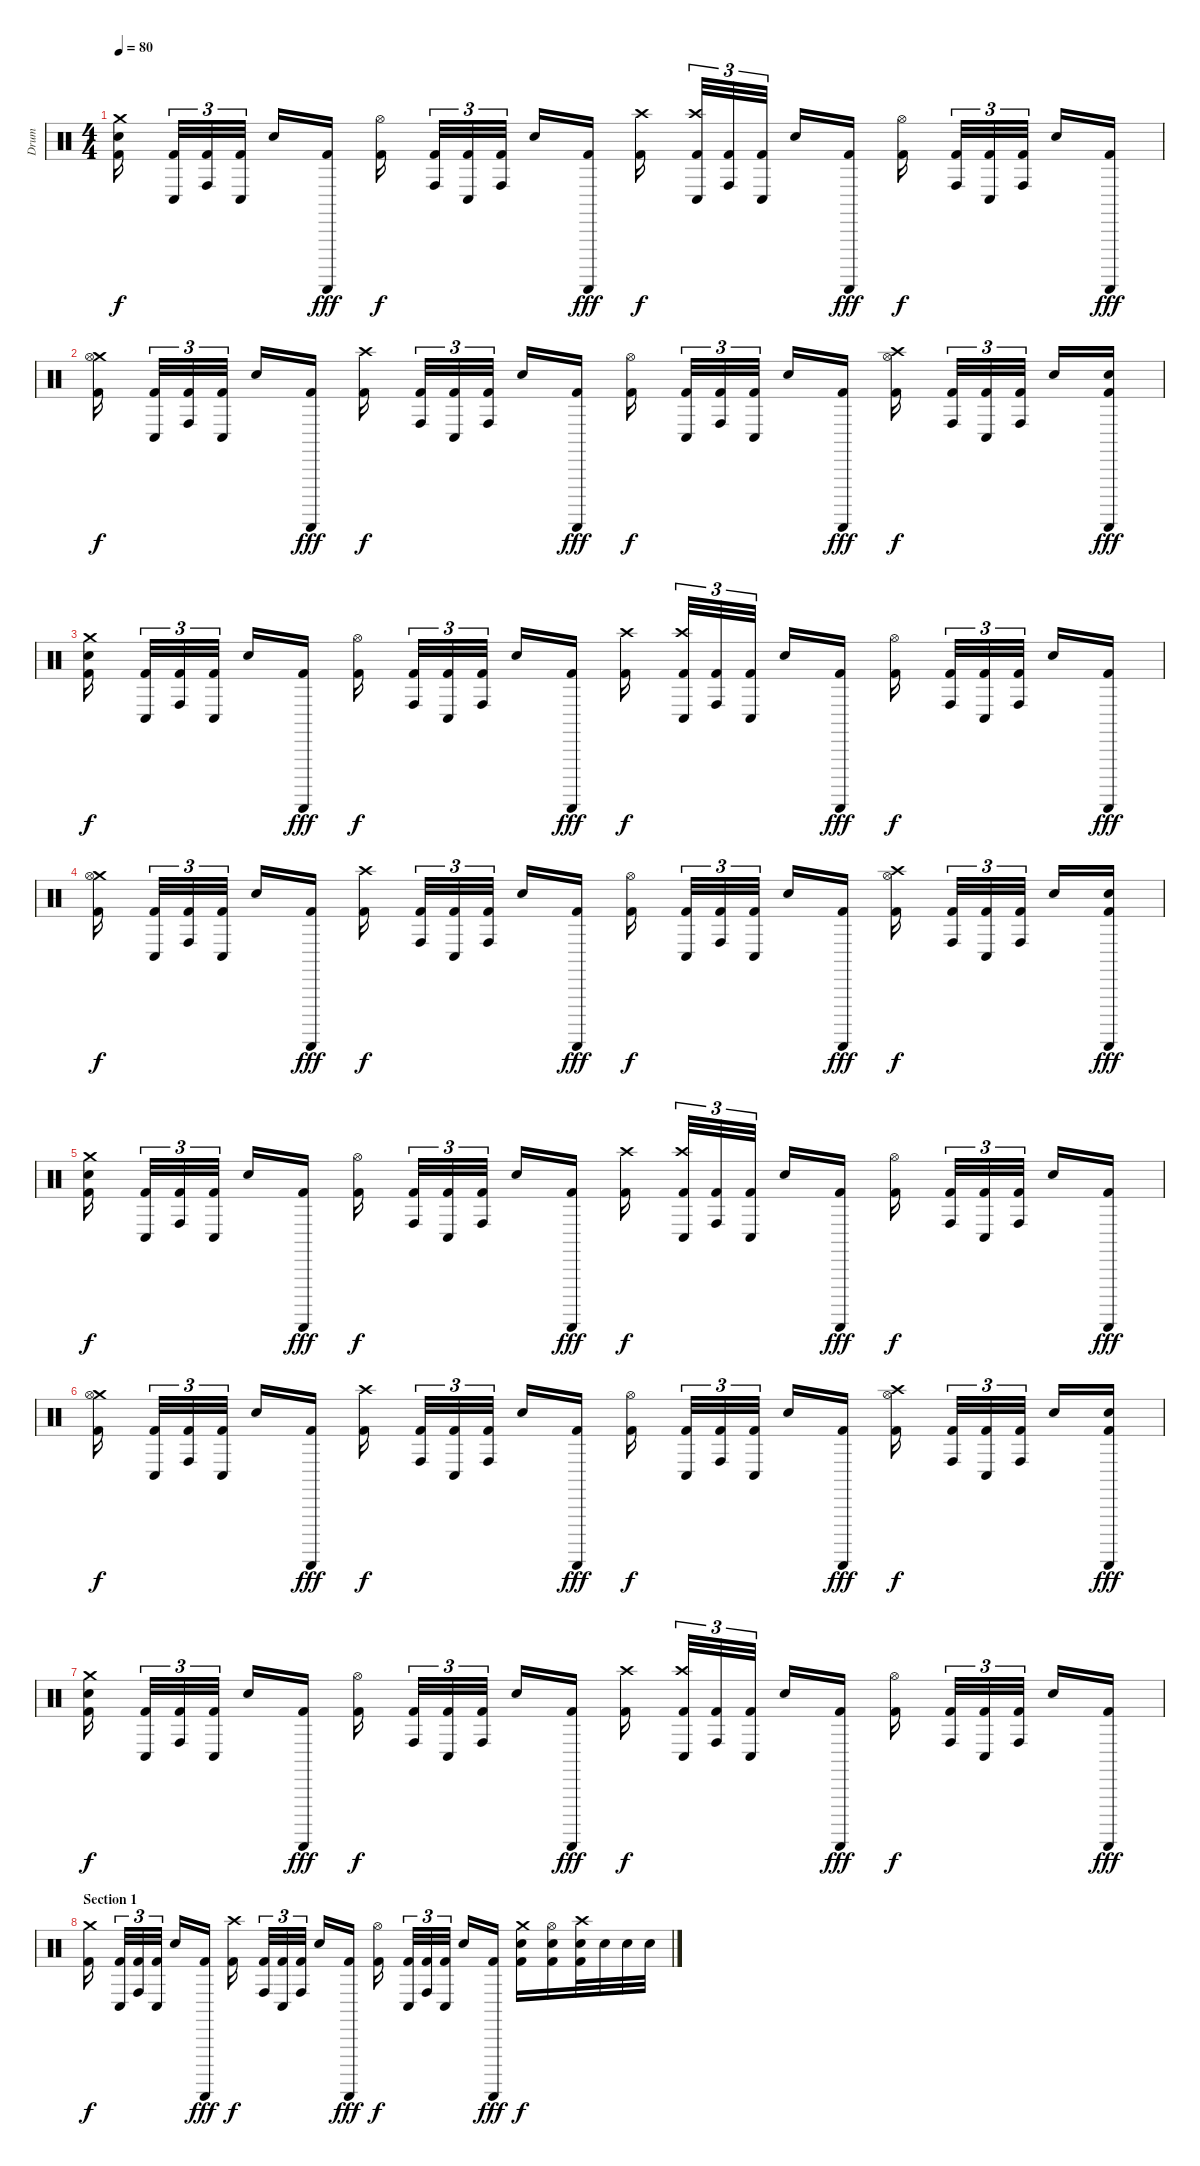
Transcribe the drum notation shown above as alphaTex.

\track ("Drum" "Drum") {instrument percussion}
\staff {score}
\articulation defaults
\ts (4 4)
\tempo 80
\clef neutral
\ks c
("Crash medium (hit)" "Electric Snare (hit)" "Kick (hit) 2").16{dy f} ("Conga low (hit)" "Kick (hit) 2").32{tu (3 2)} ("Conga high (hit)" "Kick (hit) 2").32{tu (3 2)} ("Conga low (hit)" "Kick (hit) 2").32{tu (3 2)} "Electric Snare (hit)".16 ("Guiro (scrap-return)" "Kick (hit) 2").16{dy fff} ("Hi-Hat (open)" "Kick (hit) 2").16{dy f} ("Conga high (hit)" "Kick (hit) 2").32{tu (3 2)} ("Conga low (hit)" "Kick (hit) 2").32{tu (3 2)} ("Conga high (hit)" "Kick (hit) 2").32{tu (3 2)} "Electric Snare (hit)".16 ("Guiro (scrap-return)" "Kick (hit) 2").16{dy fff} ("Crash high (hit)" "Kick (hit) 2").16{dy f} ("Crash high (hit)" "Conga low (hit)" "Kick (hit) 2").32{tu (3 2)} ("Conga high (hit)" "Kick (hit) 2").32{tu (3 2)} ("Conga low (hit)" "Kick (hit) 2").32{tu (3 2)} "Electric Snare (hit)".16 ("Guiro (scrap-return)" "Kick (hit) 2").16{dy fff} ("Hi-Hat (open)" "Kick (hit) 2").16{dy f} ("Conga high (hit)" "Kick (hit) 2").32{tu (3 2)} ("Conga low (hit)" "Kick (hit) 2").32{tu (3 2)} ("Conga high (hit)" "Kick (hit) 2").32{tu (3 2)} "Electric Snare (hit)".16 ("Guiro (scrap-return)" "Kick (hit) 2").16{dy fff} |
("Crash medium (hit)" "Hi-Hat (open)" "Kick (hit) 2").16{dy f} ("Conga low (hit)" "Kick (hit) 2").32{tu (3 2)} ("Conga high (hit)" "Kick (hit) 2").32{tu (3 2)} ("Conga low (hit)" "Kick (hit) 2").32{tu (3 2)} "Electric Snare (hit)".16 ("Guiro (scrap-return)" "Kick (hit) 2").16{dy fff} ("Crash high (hit)" "Kick (hit) 2").16{dy f} ("Conga high (hit)" "Kick (hit) 2").32{tu (3 2)} ("Conga low (hit)" "Kick (hit) 2").32{tu (3 2)} ("Conga high (hit)" "Kick (hit) 2").32{tu (3 2)} "Electric Snare (hit)".16 ("Guiro (scrap-return)" "Kick (hit) 2").16{dy fff} ("Hi-Hat (open)" "Kick (hit) 2").16{dy f} ("Conga low (hit)" "Kick (hit) 2").32{tu (3 2)} ("Conga high (hit)" "Kick (hit) 2").32{tu (3 2)} ("Conga low (hit)" "Kick (hit) 2").32{tu (3 2)} "Electric Snare (hit)".16 ("Guiro (scrap-return)" "Kick (hit) 2").16{dy fff} ("Crash high (hit)" "Hi-Hat (open)" "Kick (hit) 2").16{dy f} ("Conga high (hit)" "Kick (hit) 2").32{tu (3 2)} ("Conga low (hit)" "Kick (hit) 2").32{tu (3 2)} ("Conga high (hit)" "Kick (hit) 2").32{tu (3 2)} "Electric Snare (hit)".16 ("Guiro (scrap-return)" "Electric Snare (hit)" "Kick (hit) 2").16{dy fff} |
("Crash medium (hit)" "Electric Snare (hit)" "Kick (hit) 2").16{dy f} ("Conga low (hit)" "Kick (hit) 2").32{tu (3 2)} ("Conga high (hit)" "Kick (hit) 2").32{tu (3 2)} ("Conga low (hit)" "Kick (hit) 2").32{tu (3 2)} "Electric Snare (hit)".16 ("Guiro (scrap-return)" "Kick (hit) 2").16{dy fff} ("Hi-Hat (open)" "Kick (hit) 2").16{dy f} ("Conga high (hit)" "Kick (hit) 2").32{tu (3 2)} ("Conga low (hit)" "Kick (hit) 2").32{tu (3 2)} ("Conga high (hit)" "Kick (hit) 2").32{tu (3 2)} "Electric Snare (hit)".16 ("Guiro (scrap-return)" "Kick (hit) 2").16{dy fff} ("Crash high (hit)" "Kick (hit) 2").16{dy f} ("Crash high (hit)" "Conga low (hit)" "Kick (hit) 2").32{tu (3 2)} ("Conga high (hit)" "Kick (hit) 2").32{tu (3 2)} ("Conga low (hit)" "Kick (hit) 2").32{tu (3 2)} "Electric Snare (hit)".16 ("Guiro (scrap-return)" "Kick (hit) 2").16{dy fff} ("Hi-Hat (open)" "Kick (hit) 2").16{dy f} ("Conga high (hit)" "Kick (hit) 2").32{tu (3 2)} ("Conga low (hit)" "Kick (hit) 2").32{tu (3 2)} ("Conga high (hit)" "Kick (hit) 2").32{tu (3 2)} "Electric Snare (hit)".16 ("Guiro (scrap-return)" "Kick (hit) 2").16{dy fff} |
("Crash medium (hit)" "Hi-Hat (open)" "Kick (hit) 2").16{dy f} ("Conga low (hit)" "Kick (hit) 2").32{tu (3 2)} ("Conga high (hit)" "Kick (hit) 2").32{tu (3 2)} ("Conga low (hit)" "Kick (hit) 2").32{tu (3 2)} "Electric Snare (hit)".16 ("Guiro (scrap-return)" "Kick (hit) 2").16{dy fff} ("Crash high (hit)" "Kick (hit) 2").16{dy f} ("Conga high (hit)" "Kick (hit) 2").32{tu (3 2)} ("Conga low (hit)" "Kick (hit) 2").32{tu (3 2)} ("Conga high (hit)" "Kick (hit) 2").32{tu (3 2)} "Electric Snare (hit)".16 ("Guiro (scrap-return)" "Kick (hit) 2").16{dy fff} ("Hi-Hat (open)" "Kick (hit) 2").16{dy f} ("Conga low (hit)" "Kick (hit) 2").32{tu (3 2)} ("Conga high (hit)" "Kick (hit) 2").32{tu (3 2)} ("Conga low (hit)" "Kick (hit) 2").32{tu (3 2)} "Electric Snare (hit)".16 ("Guiro (scrap-return)" "Kick (hit) 2").16{dy fff} ("Crash high (hit)" "Hi-Hat (open)" "Kick (hit) 2").16{dy f} ("Conga high (hit)" "Kick (hit) 2").32{tu (3 2)} ("Conga low (hit)" "Kick (hit) 2").32{tu (3 2)} ("Conga high (hit)" "Kick (hit) 2").32{tu (3 2)} "Electric Snare (hit)".16 ("Guiro (scrap-return)" "Electric Snare (hit)" "Kick (hit) 2").16{dy fff} |
("Crash medium (hit)" "Electric Snare (hit)" "Kick (hit) 2").16{dy f} ("Conga low (hit)" "Kick (hit) 2").32{tu (3 2)} ("Conga high (hit)" "Kick (hit) 2").32{tu (3 2)} ("Conga low (hit)" "Kick (hit) 2").32{tu (3 2)} "Electric Snare (hit)".16 ("Guiro (scrap-return)" "Kick (hit) 2").16{dy fff} ("Hi-Hat (open)" "Kick (hit) 2").16{dy f} ("Conga high (hit)" "Kick (hit) 2").32{tu (3 2)} ("Conga low (hit)" "Kick (hit) 2").32{tu (3 2)} ("Conga high (hit)" "Kick (hit) 2").32{tu (3 2)} "Electric Snare (hit)".16 ("Guiro (scrap-return)" "Kick (hit) 2").16{dy fff} ("Crash high (hit)" "Kick (hit) 2").16{dy f} ("Crash high (hit)" "Conga low (hit)" "Kick (hit) 2").32{tu (3 2)} ("Conga high (hit)" "Kick (hit) 2").32{tu (3 2)} ("Conga low (hit)" "Kick (hit) 2").32{tu (3 2)} "Electric Snare (hit)".16 ("Guiro (scrap-return)" "Kick (hit) 2").16{dy fff} ("Hi-Hat (open)" "Kick (hit) 2").16{dy f} ("Conga high (hit)" "Kick (hit) 2").32{tu (3 2)} ("Conga low (hit)" "Kick (hit) 2").32{tu (3 2)} ("Conga high (hit)" "Kick (hit) 2").32{tu (3 2)} "Electric Snare (hit)".16 ("Guiro (scrap-return)" "Kick (hit) 2").16{dy fff} |
("Crash medium (hit)" "Hi-Hat (open)" "Kick (hit) 2").16{dy f} ("Conga low (hit)" "Kick (hit) 2").32{tu (3 2)} ("Conga high (hit)" "Kick (hit) 2").32{tu (3 2)} ("Conga low (hit)" "Kick (hit) 2").32{tu (3 2)} "Electric Snare (hit)".16 ("Guiro (scrap-return)" "Kick (hit) 2").16{dy fff} ("Crash high (hit)" "Kick (hit) 2").16{dy f} ("Conga high (hit)" "Kick (hit) 2").32{tu (3 2)} ("Conga low (hit)" "Kick (hit) 2").32{tu (3 2)} ("Conga high (hit)" "Kick (hit) 2").32{tu (3 2)} "Electric Snare (hit)".16 ("Guiro (scrap-return)" "Kick (hit) 2").16{dy fff} ("Hi-Hat (open)" "Kick (hit) 2").16{dy f} ("Conga low (hit)" "Kick (hit) 2").32{tu (3 2)} ("Conga high (hit)" "Kick (hit) 2").32{tu (3 2)} ("Conga low (hit)" "Kick (hit) 2").32{tu (3 2)} "Electric Snare (hit)".16 ("Guiro (scrap-return)" "Kick (hit) 2").16{dy fff} ("Crash high (hit)" "Hi-Hat (open)" "Kick (hit) 2").16{dy f} ("Conga high (hit)" "Kick (hit) 2").32{tu (3 2)} ("Conga low (hit)" "Kick (hit) 2").32{tu (3 2)} ("Conga high (hit)" "Kick (hit) 2").32{tu (3 2)} "Electric Snare (hit)".16 ("Guiro (scrap-return)" "Electric Snare (hit)" "Kick (hit) 2").16{dy fff} |
("Crash medium (hit)" "Electric Snare (hit)" "Kick (hit) 2").16{dy f} ("Conga low (hit)" "Kick (hit) 2").32{tu (3 2)} ("Conga high (hit)" "Kick (hit) 2").32{tu (3 2)} ("Conga low (hit)" "Kick (hit) 2").32{tu (3 2)} "Electric Snare (hit)".16 ("Guiro (scrap-return)" "Kick (hit) 2").16{dy fff} ("Hi-Hat (open)" "Kick (hit) 2").16{dy f} ("Conga high (hit)" "Kick (hit) 2").32{tu (3 2)} ("Conga low (hit)" "Kick (hit) 2").32{tu (3 2)} ("Conga high (hit)" "Kick (hit) 2").32{tu (3 2)} "Electric Snare (hit)".16 ("Guiro (scrap-return)" "Kick (hit) 2").16{dy fff} ("Crash high (hit)" "Kick (hit) 2").16{dy f} ("Crash high (hit)" "Conga low (hit)" "Kick (hit) 2").32{tu (3 2)} ("Conga high (hit)" "Kick (hit) 2").32{tu (3 2)} ("Conga low (hit)" "Kick (hit) 2").32{tu (3 2)} "Electric Snare (hit)".16 ("Guiro (scrap-return)" "Kick (hit) 2").16{dy fff} ("Hi-Hat (open)" "Kick (hit) 2").16{dy f} ("Conga high (hit)" "Kick (hit) 2").32{tu (3 2)} ("Conga low (hit)" "Kick (hit) 2").32{tu (3 2)} ("Conga high (hit)" "Kick (hit) 2").32{tu (3 2)} "Electric Snare (hit)".16 ("Guiro (scrap-return)" "Kick (hit) 2").16{dy fff} |
\section ("" "Section 1")
("Crash medium (hit)" "Kick (hit) 2").16{dy f} ("Conga low (hit)" "Kick (hit) 2").32{tu (3 2)} ("Conga high (hit)" "Kick (hit) 2").32{tu (3 2)} ("Conga low (hit)" "Kick (hit) 2").32{tu (3 2)} "Electric Snare (hit)".16 ("Guiro (scrap-return)" "Kick (hit) 2").16{dy fff} ("Crash high (hit)" "Kick (hit) 2").16{dy f} ("Conga high (hit)" "Kick (hit) 2").32{tu (3 2)} ("Conga low (hit)" "Kick (hit) 2").32{tu (3 2)} ("Conga high (hit)" "Kick (hit) 2").32{tu (3 2)} "Electric Snare (hit)".16 ("Guiro (scrap-return)" "Kick (hit) 2").16{dy fff} ("Hi-Hat (open)" "Kick (hit) 2").16{dy f} ("Conga low (hit)" "Kick (hit) 2").32{tu (3 2)} ("Conga high (hit)" "Kick (hit) 2").32{tu (3 2)} ("Conga low (hit)" "Kick (hit) 2").32{tu (3 2)} "Electric Snare (hit)".16 ("Guiro (scrap-return)" "Kick (hit) 2").16{dy fff} ("Crash medium (hit)" "Electric Snare (hit)" "Kick (hit) 2").16{dy f} ("Hi-Hat (open)" "Electric Snare (hit)" "Kick (hit) 2").16 ("Crash high (hit)" "Electric Snare (hit)" "Kick (hit) 2").32 "Electric Snare (hit)".32 "Electric Snare (hit)".32 "Electric Snare (hit)".32
